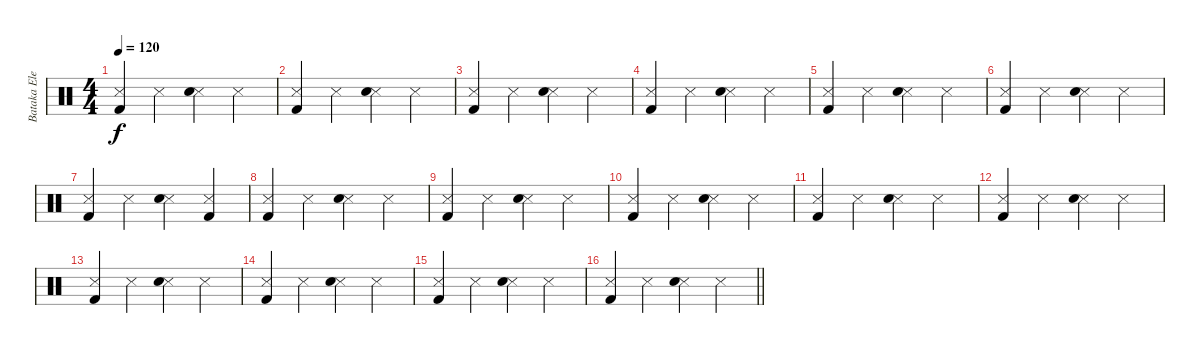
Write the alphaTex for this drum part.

\track ("Bataka Electrica" "Bataka Ele") {instrument percussion}
\staff {score}
\articulation defaults
\ts (4 4)
\section ("" "")
\tempo 120
\clef neutral
\ks c
("Metronome (hit)" "Kick (hit) 2").4{dy f} "Metronome (hit)".4 ("Metronome (hit)" "Snare (hit) 2").4 "Metronome (hit)".4 |
("Metronome (hit)" "Kick (hit) 2").4 "Metronome (hit)".4 ("Metronome (hit)" "Snare (hit) 2").4 "Metronome (hit)".4 |
("Metronome (hit)" "Kick (hit) 2").4 "Metronome (hit)".4 ("Metronome (hit)" "Snare (hit) 2").4 "Metronome (hit)".4 |
("Metronome (hit)" "Kick (hit) 2").4 "Metronome (hit)".4 ("Metronome (hit)" "Snare (hit) 2").4 "Metronome (hit)".4 |
("Metronome (hit)" "Kick (hit) 2").4 "Metronome (hit)".4 ("Metronome (hit)" "Snare (hit) 2").4 "Metronome (hit)".4 |
("Metronome (hit)" "Kick (hit) 2").4 "Metronome (hit)".4 ("Metronome (hit)" "Snare (hit) 2").4 "Metronome (hit)".4 |
("Metronome (hit)" "Kick (hit) 2").4 "Metronome (hit)".4 ("Metronome (hit)" "Snare (hit) 2").4 ("Metronome (hit)" "Kick (hit) 2").4 |
("Metronome (hit)" "Kick (hit) 2").4 "Metronome (hit)".4 ("Metronome (hit)" "Snare (hit) 2").4 "Metronome (hit)".4 |
("Metronome (hit)" "Kick (hit) 2").4 "Metronome (hit)".4 ("Metronome (hit)" "Snare (hit) 2").4 "Metronome (hit)".4 |
("Metronome (hit)" "Kick (hit) 2").4 "Metronome (hit)".4 ("Metronome (hit)" "Snare (hit) 2").4 "Metronome (hit)".4 |
("Metronome (hit)" "Kick (hit) 2").4 "Metronome (hit)".4 ("Metronome (hit)" "Snare (hit) 2").4 "Metronome (hit)".4 |
("Metronome (hit)" "Kick (hit) 2").4 "Metronome (hit)".4 ("Metronome (hit)" "Snare (hit) 2").4 "Metronome (hit)".4 |
("Metronome (hit)" "Kick (hit) 2").4 "Metronome (hit)".4 ("Metronome (hit)" "Snare (hit) 2").4 "Metronome (hit)".4 |
("Metronome (hit)" "Kick (hit) 2").4 "Metronome (hit)".4 ("Metronome (hit)" "Snare (hit) 2").4 "Metronome (hit)".4 |
("Metronome (hit)" "Kick (hit) 2").4 "Metronome (hit)".4 ("Metronome (hit)" "Snare (hit) 2").4 "Metronome (hit)".4 |
\barLineRight lightlight
("Metronome (hit)" "Kick (hit) 2").4 "Metronome (hit)".4 ("Metronome (hit)" "Snare (hit) 2").4 "Metronome (hit)".4
